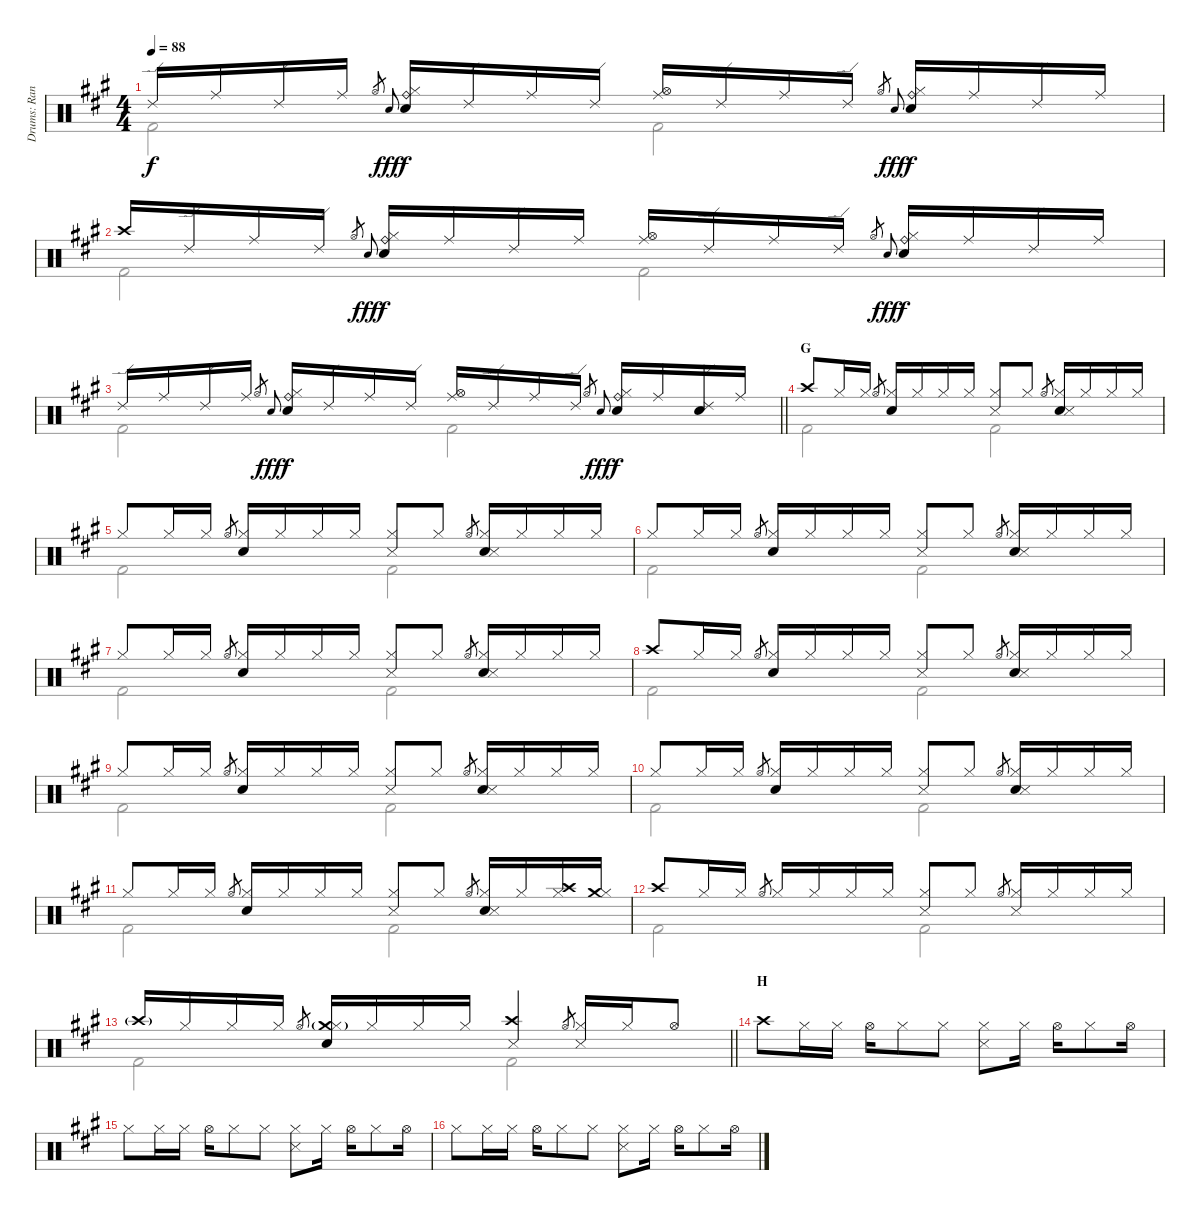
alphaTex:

\track ("Drums: Randy" "Drums: Ran") {instrument percussion}
\staff {score}
\articulation defaults
\voice
\ts (4 4)
\tempo 88
\clef neutral
\ks a "Ride (edge) 2".16{dy f} "Ride (middle)".16 "Ride (edge) 2".16 "Ride (middle)".16 "Hi-Hat (open)".16{gr} "Electric Snare (hit)".16{gr onbeat dy fff}
("Ride (bell)" "Hi-Hat (closed)" "Snare (hit) 2").16{dy f} "Ride (edge) 2".16 "Ride (middle)".16 "Ride (edge) 2".16 ("Ride (middle)" "Hi-Hat (open)").16 "Ride (edge) 2".16 "Ride (middle)".16 "Ride (edge) 2".16 "Hi-Hat (open)".16{gr} "Electric Snare (hit)".16{gr onbeat dy fff} ("Ride (bell)" "Hi-Hat (closed)" "Snare (hit) 2").16{dy f} "Ride (middle)".16 "Ride (edge) 2".16 "Ride (middle)".16 |
"Crash high (hit)".16 "Ride (edge) 2".16 "Ride (middle)".16 "Ride (edge) 2".16 "Hi-Hat (open)".16{gr} "Electric Snare (hit)".16{gr onbeat dy fff} ("Ride (bell)" "Hi-Hat (closed)" "Snare (hit) 2").16{dy f} "Ride (middle)".16 "Ride (edge) 2".16 "Ride (middle)".16 ("Ride (middle)" "Hi-Hat (open)").16 "Ride (edge) 2".16 "Ride (middle)".16 "Ride (edge) 2".16 "Hi-Hat (open)".16{gr} "Electric Snare (hit)".16{gr onbeat dy fff} ("Ride (bell)" "Hi-Hat (closed)" "Snare (hit) 2").16{dy f} "Ride (middle)".16 "Ride (edge) 2".16 "Ride (middle)".16 |
\barLineRight lightlight "Ride (edge) 2".16 "Ride (middle)".16 "Ride (edge) 2".16 "Ride (middle)".16 "Hi-Hat (open)".16{gr} "Electric Snare (hit)".16{gr onbeat dy fff}
("Ride (bell)" "Hi-Hat (closed)" "Snare (hit) 2").16{dy f} "Ride (edge) 2".16 "Ride (middle)".16 "Ride (edge) 2".16 ("Ride (middle)" "Hi-Hat (open)").16 "Ride (edge) 2".16 "Ride (middle)".16 "Ride (edge) 2".16 "Hi-Hat (open)".16{gr} "Electric Snare (hit)".16{gr onbeat dy fff} ("Ride (bell)" "Hi-Hat (closed)" "Snare (hit) 2").16{dy f} "Ride (middle)".16 ("Ride (edge) 2" "Snare (hit) 2").16 "Ride (middle)".16 |
\section ("" "G")
"Crash high (hit)".8 "Hi-Hat (closed)".16 "Hi-Hat (closed)".16 "Hi-Hat (open)".8{gr} ("Hi-Hat (closed)" "Electric Snare (hit)").16 "Hi-Hat (closed)".16 "Hi-Hat (closed)".16 "Hi-Hat (closed)".16 ("Hi-Hat (closed)" "Snare (side stick) 3").8 "Hi-Hat (closed)".8 "Hi-Hat (open)".8{gr} ("Hi-Hat (closed)" "Electric Snare (hit)" "Snare (side stick) 3").16 "Hi-Hat (closed)".16 "Hi-Hat (closed)".16 "Hi-Hat (closed)".16 |
"Hi-Hat (closed)".8 "Hi-Hat (closed)".16 "Hi-Hat (closed)".16 "Hi-Hat (open)".8{gr} ("Hi-Hat (closed)" "Electric Snare (hit)").16 "Hi-Hat (closed)".16 "Hi-Hat (closed)".16 "Hi-Hat (closed)".16 ("Hi-Hat (closed)" "Snare (side stick) 3").8 "Hi-Hat (closed)".8 "Hi-Hat (open)".8{gr} ("Hi-Hat (closed)" "Electric Snare (hit)" "Snare (side stick) 3").16 "Hi-Hat (closed)".16 "Hi-Hat (closed)".16 "Hi-Hat (closed)".16 |
"Hi-Hat (closed)".8 "Hi-Hat (closed)".16 "Hi-Hat (closed)".16 "Hi-Hat (open)".8{gr} ("Hi-Hat (closed)" "Electric Snare (hit)").16 "Hi-Hat (closed)".16 "Hi-Hat (closed)".16 "Hi-Hat (closed)".16 ("Hi-Hat (closed)" "Snare (side stick) 3").8 "Hi-Hat (closed)".8 "Hi-Hat (open)".8{gr} ("Hi-Hat (closed)" "Electric Snare (hit)" "Snare (side stick) 3").16 "Hi-Hat (closed)".16 "Hi-Hat (closed)".16 "Hi-Hat (closed)".16 |
"Hi-Hat (closed)".8 "Hi-Hat (closed)".16 "Hi-Hat (closed)".16 "Hi-Hat (open)".8{gr} ("Hi-Hat (closed)" "Electric Snare (hit)").16 "Hi-Hat (closed)".16 "Hi-Hat (closed)".16 "Hi-Hat (closed)".16 ("Hi-Hat (closed)" "Snare (side stick) 3").8 "Hi-Hat (closed)".8 "Hi-Hat (open)".8{gr} ("Hi-Hat (closed)" "Electric Snare (hit)" "Snare (side stick) 3").16 "Hi-Hat (closed)".16 "Hi-Hat (closed)".16 "Hi-Hat (closed)".16 |
"Crash high (hit)".8 "Hi-Hat (closed)".16 "Hi-Hat (closed)".16 "Hi-Hat (open)".8{gr} ("Hi-Hat (closed)" "Electric Snare (hit)").16 "Hi-Hat (closed)".16 "Hi-Hat (closed)".16 "Hi-Hat (closed)".16 ("Hi-Hat (closed)" "Snare (side stick) 3").8 "Hi-Hat (closed)".8 "Hi-Hat (open)".8{gr} ("Hi-Hat (closed)" "Electric Snare (hit)" "Snare (side stick) 3").16 "Hi-Hat (closed)".16 "Hi-Hat (closed)".16 "Hi-Hat (closed)".16 |
"Hi-Hat (closed)".8 "Hi-Hat (closed)".16 "Hi-Hat (closed)".16 "Hi-Hat (open)".8{gr} ("Hi-Hat (closed)" "Electric Snare (hit)").16 "Hi-Hat (closed)".16 "Hi-Hat (closed)".16 "Hi-Hat (closed)".16 ("Hi-Hat (closed)" "Snare (side stick) 3").8 "Hi-Hat (closed)".8 "Hi-Hat (open)".8{gr} ("Hi-Hat (closed)" "Electric Snare (hit)" "Snare (side stick) 3").16 "Hi-Hat (closed)".16 "Hi-Hat (closed)".16 "Hi-Hat (closed)".16 |
"Hi-Hat (closed)".8 "Hi-Hat (closed)".16 "Hi-Hat (closed)".16 "Hi-Hat (open)".8{gr} ("Hi-Hat (closed)" "Electric Snare (hit)").16 "Hi-Hat (closed)".16 "Hi-Hat (closed)".16 "Hi-Hat (closed)".16 ("Hi-Hat (closed)" "Snare (side stick) 3").8 "Hi-Hat (closed)".8 "Hi-Hat (open)".8{gr} ("Hi-Hat (closed)" "Electric Snare (hit)" "Snare (side stick) 3").16 "Hi-Hat (closed)".16 "Hi-Hat (closed)".16 "Hi-Hat (closed)".16 |
"Hi-Hat (closed)".8 "Hi-Hat (closed)".16 "Hi-Hat (closed)".16 "Hi-Hat (open)".8{gr} ("Hi-Hat (closed)" "Electric Snare (hit)").16 "Hi-Hat (closed)".16 "Hi-Hat (closed)".16 "Hi-Hat (closed)".16 ("Hi-Hat (closed)" "Snare (side stick) 3").8 "Hi-Hat (closed)".8 "Hi-Hat (open)".8{gr} ("Hi-Hat (closed)" "Electric Snare (hit)" "Snare (side stick) 3").16 "Hi-Hat (closed)".16 ("Crash high (hit)" "Hi-Hat (closed)").16 ("Crash medium (hit)" "Hi-Hat (closed)").16 |
"Crash high (hit)".8 "Hi-Hat (closed)".16 "Hi-Hat (closed)".16 "Hi-Hat (open)".8{gr} "Hi-Hat (closed)".16 "Hi-Hat (closed)".16 "Hi-Hat (closed)".16 "Hi-Hat (closed)".16 ("Hi-Hat (closed)" "Snare (side stick) 3").8 "Hi-Hat (closed)".8 "Hi-Hat (open)".8{gr} ("Hi-Hat (closed)" "Snare (side stick) 3").16 "Hi-Hat (closed)".16 "Hi-Hat (closed)".16 "Hi-Hat (closed)".16 |
\barLineRight lightlight "Crash high (hit)"{g}.16 "Hi-Hat (closed)".16 "Hi-Hat (closed)".16 "Hi-Hat (closed)".16 "Hi-Hat (open)".8{gr}
("Crash medium (hit)"{g} "Hi-Hat (closed)" "Electric Snare (hit)").16 "Hi-Hat (closed)".16 "Hi-Hat (closed)".16 "Hi-Hat (closed)".16 ("Crash high (hit)" "Snare (side stick) 3").4 "Hi-Hat (open)".8{gr} ("Hi-Hat (closed)" "Snare (side stick) 3").16 "Hi-Hat (closed)".16 "Hi-Hat (open)".8 |
\section ("" "H")
"Crash high (hit)".8 "Hi-Hat (closed)".16 "Hi-Hat (closed)".16 "Hi-Hat (open)".16 "Hi-Hat (closed)".8 "Hi-Hat (closed)".8 ("Hi-Hat (closed)" "Snare (side stick) 3").8 "Hi-Hat (closed)".16 "Hi-Hat (open)".16 "Hi-Hat (closed)".8 "Hi-Hat (open)".16 |
"Hi-Hat (closed)".8 "Hi-Hat (closed)".16 "Hi-Hat (closed)".16 "Hi-Hat (open)".16 "Hi-Hat (closed)".8 "Hi-Hat (closed)".8 ("Hi-Hat (closed)" "Snare (side stick) 3").8 "Hi-Hat (closed)".16 "Hi-Hat (open)".16 "Hi-Hat (closed)".8 "Hi-Hat (open)".16 |
"Hi-Hat (closed)".8 "Hi-Hat (closed)".16 "Hi-Hat (closed)".16 "Hi-Hat (open)".16 "Hi-Hat (closed)".8 "Hi-Hat (closed)".8 ("Hi-Hat (closed)" "Snare (side stick) 3").8 "Hi-Hat (closed)".16 "Hi-Hat (open)".16 "Hi-Hat (closed)".8 "Hi-Hat (open)".16
\voice
\clef neutral
\ottava regular
\simile none
\ks a "Kick (hit) 2".2{dy f} "Kick (hit) 2".2
|
"Kick (hit) 2".2 "Kick (hit) 2".2 |
\barLineRight lightlight "Kick (hit) 2".2 "Kick (hit) 2".2
|
"Kick (hit) 2".2 "Kick (hit) 2".2 |
"Kick (hit) 2".2 "Kick (hit) 2".2 |
"Kick (hit) 2".2 "Kick (hit) 2".2 |
"Kick (hit) 2".2 "Kick (hit) 2".2 |
"Kick (hit) 2".2 "Kick (hit) 2".2 |
"Kick (hit) 2".2 "Kick (hit) 2".2 |
"Kick (hit) 2".2 "Kick (hit) 2".2 |
"Kick (hit) 2".2 "Kick (hit) 2".2 |
"Kick (hit) 2".2 "Kick (hit) 2".2 |
\barLineRight lightlight "Kick (hit) 2".2 "Kick (hit) 2".2
|
|
|
